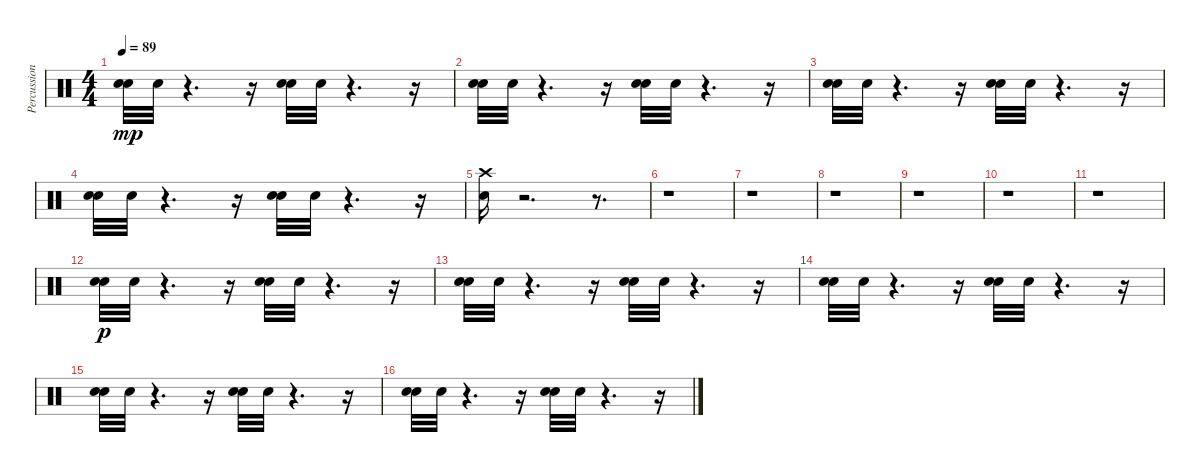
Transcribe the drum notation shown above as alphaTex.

\track ("Percussion" "Percussion") {instrument percussion}
\staff {score}
\articulation defaults
\ts (4 4)
\tempo 89
\clef neutral
\ks c
("Snare (hit) 2" "Snare (hit) 2").32{dy mp} "Snare (hit) 2".32 r.4{d} r.16 ("Snare (hit) 2" "Snare (hit) 2").32 "Snare (hit) 2".32 r.4{d} r.16 |
("Snare (hit) 2" "Snare (hit) 2").32 "Snare (hit) 2".32 r.4{d} r.16 ("Snare (hit) 2" "Snare (hit) 2").32 "Snare (hit) 2".32 r.4{d} r.16 |
("Snare (hit) 2" "Snare (hit) 2").32 "Snare (hit) 2".32 r.4{d} r.16 ("Snare (hit) 2" "Snare (hit) 2").32 "Snare (hit) 2".32 r.4{d} r.16 |
("Snare (hit) 2" "Snare (hit) 2").32 "Snare (hit) 2".32 r.4{d} r.16 ("Snare (hit) 2" "Snare (hit) 2").32 "Snare (hit) 2".32 r.4{d} r.16 |
("Snare (hit) 2" "Crash high (hit)").16 r.2{d} r.8{d} |
r.1 |
r.1 |
r.1 |
r.1 |
r.1 |
r.1 |
("Snare (hit) 2" "Snare (hit) 2").32{dy p} "Snare (hit) 2".32 r.4{d} r.16 ("Snare (hit) 2" "Snare (hit) 2").32 "Snare (hit) 2".32 r.4{d} r.16 |
("Snare (hit) 2" "Snare (hit) 2").32 "Snare (hit) 2".32 r.4{d} r.16 ("Snare (hit) 2" "Snare (hit) 2").32 "Snare (hit) 2".32 r.4{d} r.16 |
("Snare (hit) 2" "Snare (hit) 2").32 "Snare (hit) 2".32 r.4{d} r.16 ("Snare (hit) 2" "Snare (hit) 2").32 "Snare (hit) 2".32 r.4{d} r.16 |
("Snare (hit) 2" "Snare (hit) 2").32 "Snare (hit) 2".32 r.4{d} r.16 ("Snare (hit) 2" "Snare (hit) 2").32 "Snare (hit) 2".32 r.4{d} r.16 |
("Snare (hit) 2" "Snare (hit) 2").32 "Snare (hit) 2".32 r.4{d} r.16 ("Snare (hit) 2" "Snare (hit) 2").32 "Snare (hit) 2".32 r.4{d} r.16
